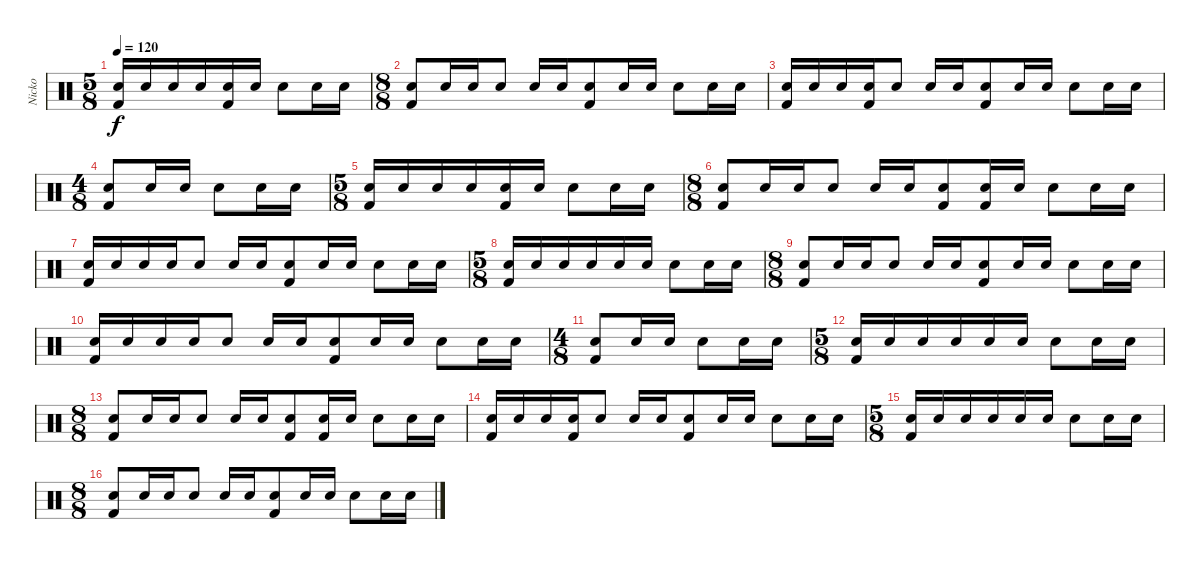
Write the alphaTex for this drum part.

\track ("Nicko" "Nicko") {instrument percussion}
\staff {score}
\articulation defaults
\ts (5 8)
\tempo 120
\clef neutral
\ks c
("Electric Snare (hit)" "Kick (hit) 2").16{dy f} "Electric Snare (hit)".16 "Electric Snare (hit)".16 "Electric Snare (hit)".16 ("Electric Snare (hit)" "Kick (hit) 2").16 "Electric Snare (hit)".16 "Electric Snare (hit)".8 "Electric Snare (hit)".16 "Electric Snare (hit)".16 |
\ts (8 8)
("Electric Snare (hit)" "Kick (hit) 2").8 "Electric Snare (hit)".16 "Electric Snare (hit)".16 "Electric Snare (hit)".8 "Electric Snare (hit)".16 "Electric Snare (hit)".16 ("Electric Snare (hit)" "Kick (hit) 2").8 "Electric Snare (hit)".16 "Electric Snare (hit)".16 "Electric Snare (hit)".8 "Electric Snare (hit)".16 "Electric Snare (hit)".16 |
("Electric Snare (hit)" "Kick (hit) 2").16 "Electric Snare (hit)".16 "Electric Snare (hit)".16 ("Electric Snare (hit)" "Kick (hit) 2").16 "Electric Snare (hit)".8 "Electric Snare (hit)".16 "Electric Snare (hit)".16 ("Electric Snare (hit)" "Kick (hit) 2").8 "Electric Snare (hit)".16 "Electric Snare (hit)".16 "Electric Snare (hit)".8 "Electric Snare (hit)".16 "Electric Snare (hit)".16 |
\ts (4 8)
("Electric Snare (hit)" "Kick (hit) 2").8 "Electric Snare (hit)".16 "Electric Snare (hit)".16 "Electric Snare (hit)".8 "Electric Snare (hit)".16 "Electric Snare (hit)".16 |
\ts (5 8)
("Electric Snare (hit)" "Kick (hit) 2").16 "Electric Snare (hit)".16 "Electric Snare (hit)".16 "Electric Snare (hit)".16 ("Electric Snare (hit)" "Kick (hit) 2").16 "Electric Snare (hit)".16 "Electric Snare (hit)".8 "Electric Snare (hit)".16 "Electric Snare (hit)".16 |
\ts (8 8)
("Electric Snare (hit)" "Kick (hit) 2").8 "Electric Snare (hit)".16 "Electric Snare (hit)".16 "Electric Snare (hit)".8 "Electric Snare (hit)".16 "Electric Snare (hit)".16 ("Electric Snare (hit)" "Kick (hit) 2").8 ("Electric Snare (hit)" "Kick (hit) 2").16 "Electric Snare (hit)".16 "Electric Snare (hit)".8 "Electric Snare (hit)".16 "Electric Snare (hit)".16 |
("Electric Snare (hit)" "Kick (hit) 2").16 "Electric Snare (hit)".16 "Electric Snare (hit)".16 "Electric Snare (hit)".16 "Electric Snare (hit)".8 "Electric Snare (hit)".16 "Electric Snare (hit)".16 ("Electric Snare (hit)" "Kick (hit) 2").8 "Electric Snare (hit)".16 "Electric Snare (hit)".16 "Electric Snare (hit)".8 "Electric Snare (hit)".16 "Electric Snare (hit)".16 |
\ts (5 8)
("Electric Snare (hit)" "Kick (hit) 2").16 "Electric Snare (hit)".16 "Electric Snare (hit)".16 "Electric Snare (hit)".16 "Electric Snare (hit)".16 "Electric Snare (hit)".16 "Electric Snare (hit)".8 "Electric Snare (hit)".16 "Electric Snare (hit)".16 |
\ts (8 8)
("Electric Snare (hit)" "Kick (hit) 2").8 "Electric Snare (hit)".16 "Electric Snare (hit)".16 "Electric Snare (hit)".8 "Electric Snare (hit)".16 "Electric Snare (hit)".16 ("Electric Snare (hit)" "Kick (hit) 2").8 "Electric Snare (hit)".16 "Electric Snare (hit)".16 "Electric Snare (hit)".8 "Electric Snare (hit)".16 "Electric Snare (hit)".16 |
("Electric Snare (hit)" "Kick (hit) 2").16 "Electric Snare (hit)".16 "Electric Snare (hit)".16 "Electric Snare (hit)".16 "Electric Snare (hit)".8 "Electric Snare (hit)".16 "Electric Snare (hit)".16 ("Electric Snare (hit)" "Kick (hit) 2").8 "Electric Snare (hit)".16 "Electric Snare (hit)".16 "Electric Snare (hit)".8 "Electric Snare (hit)".16 "Electric Snare (hit)".16 |
\ts (4 8)
("Electric Snare (hit)" "Kick (hit) 2").8 "Electric Snare (hit)".16 "Electric Snare (hit)".16 "Electric Snare (hit)".8 "Electric Snare (hit)".16 "Electric Snare (hit)".16 |
\ts (5 8)
("Electric Snare (hit)" "Kick (hit) 2").16 "Electric Snare (hit)".16 "Electric Snare (hit)".16 "Electric Snare (hit)".16 "Electric Snare (hit)".16 "Electric Snare (hit)".16 "Electric Snare (hit)".8 "Electric Snare (hit)".16 "Electric Snare (hit)".16 |
\ts (8 8)
("Electric Snare (hit)" "Kick (hit) 2").8 "Electric Snare (hit)".16 "Electric Snare (hit)".16 "Electric Snare (hit)".8 "Electric Snare (hit)".16 "Electric Snare (hit)".16 ("Electric Snare (hit)" "Kick (hit) 2").8 ("Electric Snare (hit)" "Kick (hit) 2").16 "Electric Snare (hit)".16 "Electric Snare (hit)".8 "Electric Snare (hit)".16 "Electric Snare (hit)".16 |
("Electric Snare (hit)" "Kick (hit) 2").16 "Electric Snare (hit)".16 "Electric Snare (hit)".16 ("Electric Snare (hit)" "Kick (hit) 2").16 "Electric Snare (hit)".8 "Electric Snare (hit)".16 "Electric Snare (hit)".16 ("Electric Snare (hit)" "Kick (hit) 2").8 "Electric Snare (hit)".16 "Electric Snare (hit)".16 "Electric Snare (hit)".8 "Electric Snare (hit)".16 "Electric Snare (hit)".16 |
\ts (5 8)
("Electric Snare (hit)" "Kick (hit) 2").16 "Electric Snare (hit)".16 "Electric Snare (hit)".16 "Electric Snare (hit)".16 "Electric Snare (hit)".16 "Electric Snare (hit)".16 "Electric Snare (hit)".8 "Electric Snare (hit)".16 "Electric Snare (hit)".16 |
\ts (8 8)
("Electric Snare (hit)" "Kick (hit) 2").8 "Electric Snare (hit)".16 "Electric Snare (hit)".16 "Electric Snare (hit)".8 "Electric Snare (hit)".16 "Electric Snare (hit)".16 ("Electric Snare (hit)" "Kick (hit) 2").8 "Electric Snare (hit)".16 "Electric Snare (hit)".16 "Electric Snare (hit)".8 "Electric Snare (hit)".16 "Electric Snare (hit)".16
